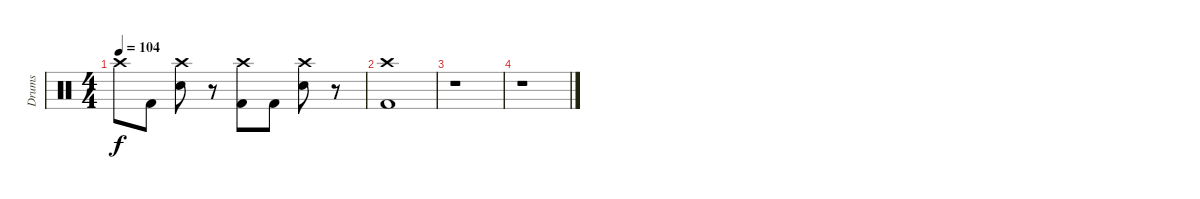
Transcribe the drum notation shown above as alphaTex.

\track ("Drums" "Drums") {instrument percussion}
\staff {score}
\articulation defaults
\ts (4 4)
\tempo 104
\clef neutral
\ks c "Crash high (hit)".8{dy f} "Kick (hit) 2".8
("Crash high (hit)" "Electric Snare (hit)").8 r.8 ("Crash high (hit)" "Kick (hit) 2").8 "Kick (hit) 2".8 ("Crash high (hit)" "Electric Snare (hit)").8 r.8 |
("Crash high (hit)" "Kick (hit) 2").1 |
r.1 |
r.1
